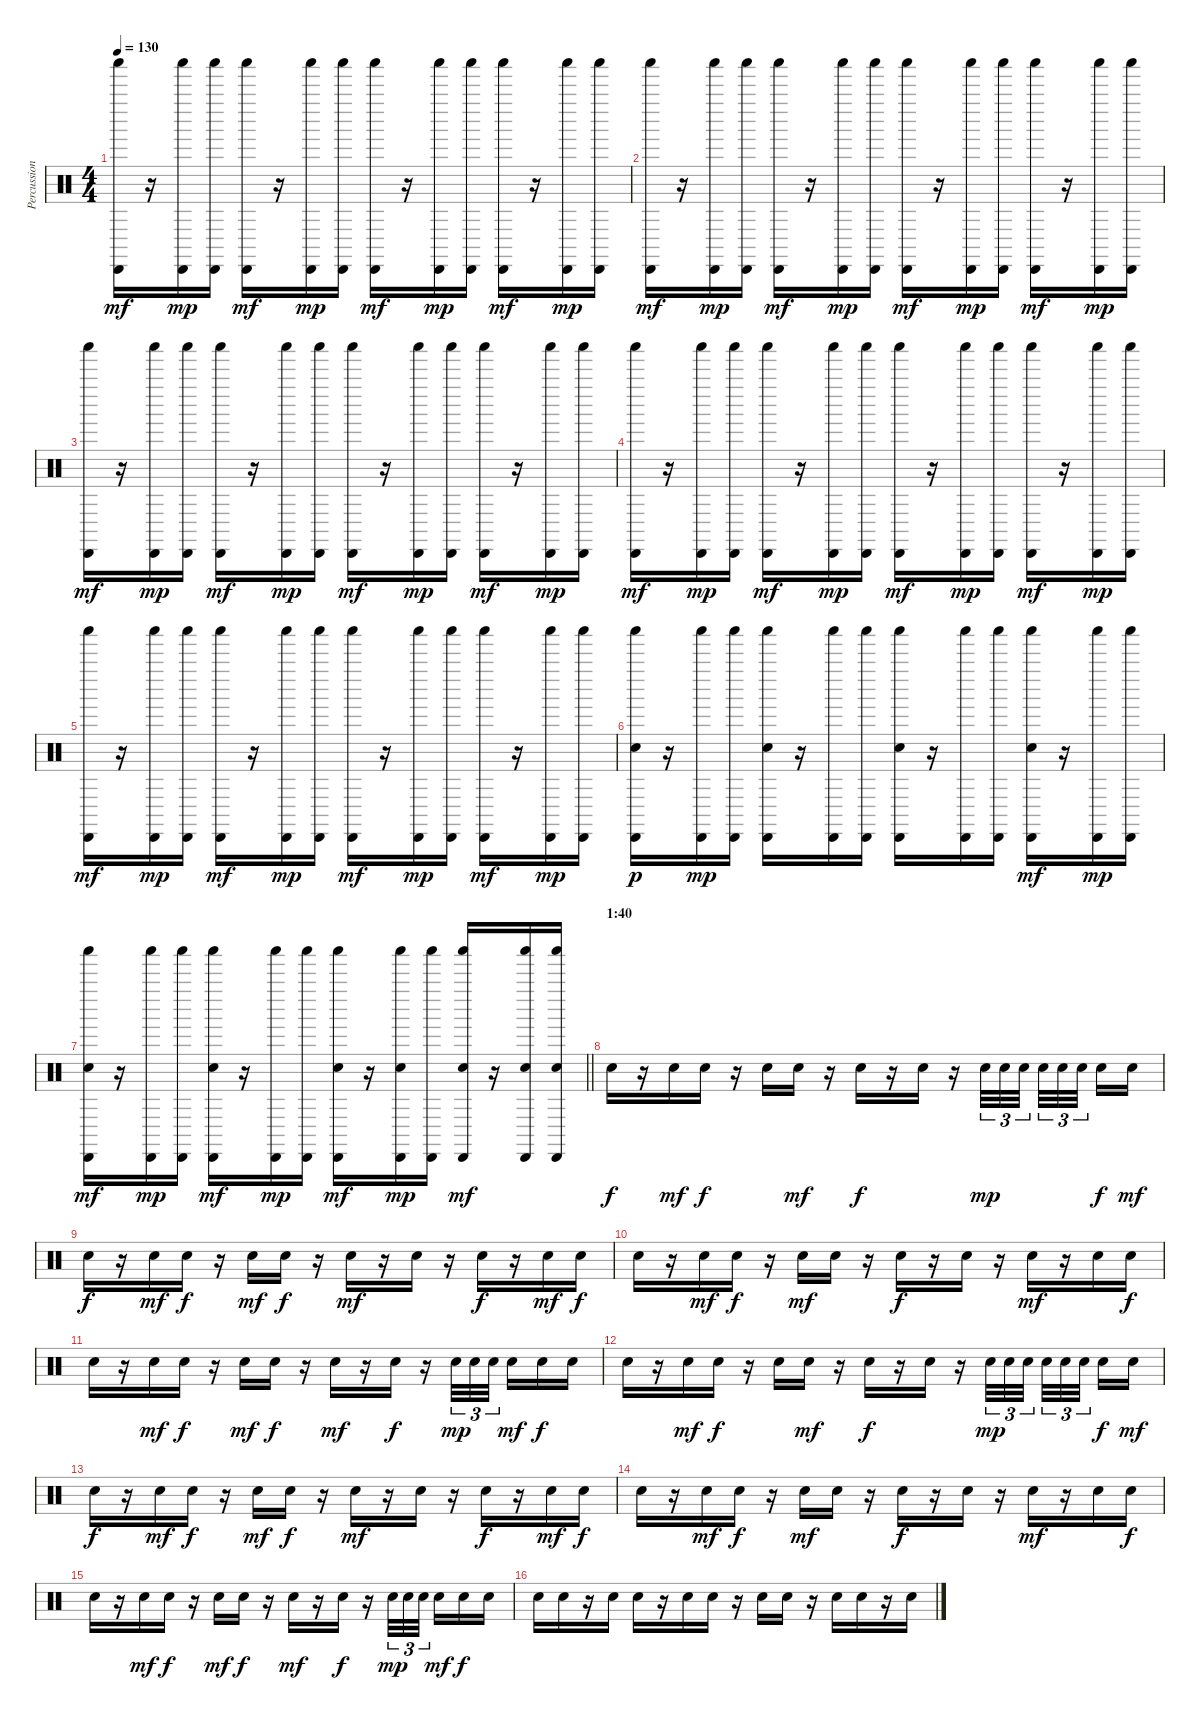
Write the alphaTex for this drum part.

\track ("Percussion" "Percussion") {instrument percussion}
\staff {score}
\articulation defaults
\ts (4 4)
\tempo 130
\clef neutral
\ks c
("Cabasa (hit)" "Shaker (hit)").16{dy mf} r.16 ("Cabasa (hit)" "Shaker (hit)").16{dy mp} ("Cabasa (hit)" "Shaker (hit)").16 ("Cabasa (hit)" "Shaker (hit)").16{dy mf} r.16 ("Cabasa (hit)" "Shaker (hit)").16{dy mp} ("Cabasa (hit)" "Shaker (hit)").16 ("Cabasa (hit)" "Shaker (hit)").16{dy mf} r.16 ("Cabasa (hit)" "Shaker (hit)").16{dy mp} ("Cabasa (hit)" "Shaker (hit)").16 ("Cabasa (hit)" "Shaker (hit)").16{dy mf} r.16 ("Cabasa (hit)" "Shaker (hit)").16{dy mp} ("Cabasa (hit)" "Shaker (hit)").16 |
("Cabasa (hit)" "Shaker (hit)").16{dy mf} r.16 ("Cabasa (hit)" "Shaker (hit)").16{dy mp} ("Cabasa (hit)" "Shaker (hit)").16 ("Cabasa (hit)" "Shaker (hit)").16{dy mf} r.16 ("Cabasa (hit)" "Shaker (hit)").16{dy mp} ("Cabasa (hit)" "Shaker (hit)").16 ("Cabasa (hit)" "Shaker (hit)").16{dy mf} r.16 ("Cabasa (hit)" "Shaker (hit)").16{dy mp} ("Cabasa (hit)" "Shaker (hit)").16 ("Cabasa (hit)" "Shaker (hit)").16{dy mf} r.16 ("Cabasa (hit)" "Shaker (hit)").16{dy mp} ("Cabasa (hit)" "Shaker (hit)").16 |
("Cabasa (hit)" "Shaker (hit)").16{dy mf} r.16 ("Cabasa (hit)" "Shaker (hit)").16{dy mp} ("Cabasa (hit)" "Shaker (hit)").16 ("Cabasa (hit)" "Shaker (hit)").16{dy mf} r.16 ("Cabasa (hit)" "Shaker (hit)").16{dy mp} ("Cabasa (hit)" "Shaker (hit)").16 ("Cabasa (hit)" "Shaker (hit)").16{dy mf} r.16 ("Cabasa (hit)" "Shaker (hit)").16{dy mp} ("Cabasa (hit)" "Shaker (hit)").16 ("Cabasa (hit)" "Shaker (hit)").16{dy mf} r.16 ("Cabasa (hit)" "Shaker (hit)").16{dy mp} ("Cabasa (hit)" "Shaker (hit)").16 |
("Cabasa (hit)" "Shaker (hit)").16{dy mf} r.16 ("Cabasa (hit)" "Shaker (hit)").16{dy mp} ("Cabasa (hit)" "Shaker (hit)").16 ("Cabasa (hit)" "Shaker (hit)").16{dy mf} r.16 ("Cabasa (hit)" "Shaker (hit)").16{dy mp} ("Cabasa (hit)" "Shaker (hit)").16 ("Cabasa (hit)" "Shaker (hit)").16{dy mf} r.16 ("Cabasa (hit)" "Shaker (hit)").16{dy mp} ("Cabasa (hit)" "Shaker (hit)").16 ("Cabasa (hit)" "Shaker (hit)").16{dy mf} r.16 ("Cabasa (hit)" "Shaker (hit)").16{dy mp} ("Cabasa (hit)" "Shaker (hit)").16 |
("Cabasa (hit)" "Shaker (hit)").16{dy mf} r.16 ("Cabasa (hit)" "Shaker (hit)").16{dy mp} ("Cabasa (hit)" "Shaker (hit)").16 ("Cabasa (hit)" "Shaker (hit)").16{dy mf} r.16 ("Cabasa (hit)" "Shaker (hit)").16{dy mp} ("Cabasa (hit)" "Shaker (hit)").16 ("Cabasa (hit)" "Shaker (hit)").16{dy mf} r.16 ("Cabasa (hit)" "Shaker (hit)").16{dy mp} ("Cabasa (hit)" "Shaker (hit)").16 ("Cabasa (hit)" "Shaker (hit)").16{dy mf} r.16 ("Cabasa (hit)" "Shaker (hit)").16{dy mp} ("Cabasa (hit)" "Shaker (hit)").16 |
("Cabasa (hit)" "Shaker (hit)" "Snare (hit) 2").16{dy p} r.16 ("Cabasa (hit)" "Shaker (hit)").16{dy mp} ("Cabasa (hit)" "Shaker (hit)").16 ("Cabasa (hit)" "Shaker (hit)" "Snare (hit) 2").16 r.16 ("Cabasa (hit)" "Shaker (hit)").16 ("Cabasa (hit)" "Shaker (hit)").16 ("Cabasa (hit)" "Shaker (hit)" "Snare (hit) 2").16 r.16 ("Cabasa (hit)" "Shaker (hit)").16 ("Cabasa (hit)" "Shaker (hit)").16 ("Cabasa (hit)" "Shaker (hit)" "Snare (hit) 2").16{dy mf} r.16 ("Cabasa (hit)" "Shaker (hit)").16{dy mp} ("Cabasa (hit)" "Shaker (hit)").16 |
\barLineRight lightlight
("Cabasa (hit)" "Shaker (hit)" "Snare (hit) 2").16{dy mf} r.16 ("Cabasa (hit)" "Shaker (hit)").16{dy mp} ("Cabasa (hit)" "Shaker (hit)").16 ("Cabasa (hit)" "Shaker (hit)" "Snare (hit) 2").16{dy mf} r.16 ("Cabasa (hit)" "Shaker (hit)").16{dy mp} ("Cabasa (hit)" "Shaker (hit)").16 ("Cabasa (hit)" "Shaker (hit)" "Snare (hit) 2").16{dy mf} r.16 ("Cabasa (hit)" "Shaker (hit)" "Snare (hit) 2").16{dy mp} ("Cabasa (hit)" "Shaker (hit)").16 ("Cabasa (hit)" "Shaker (hit)" "Snare (hit) 2").16{dy mf} r.16 ("Cabasa (hit)" "Shaker (hit)" "Snare (hit) 2").16 ("Cabasa (hit)" "Shaker (hit)" "Snare (hit) 2").16 |
\section ("" "1:40")
"Snare (hit) 2".16{dy f} r.16 "Snare (hit) 2".16{dy mf} "Snare (hit) 2".16{dy f} r.16 "Snare (hit) 2".16 "Snare (hit) 2".16{dy mf} r.16 "Snare (hit) 2".16{dy f} r.16 "Snare (hit) 2".16 r.16 "Snare (hit) 2".32{tu (3 2) dy mp} "Snare (hit) 2".32{tu (3 2)} "Snare (hit) 2".32{tu (3 2) beam splitsecondary} "Snare (hit) 2".32{tu (3 2)} "Snare (hit) 2".32{tu (3 2)} "Snare (hit) 2".32{tu (3 2) beam splitsecondary} "Snare (hit) 2".16{dy f} "Snare (hit) 2".16{dy mf} |
"Snare (hit) 2".16{dy f} r.16 "Snare (hit) 2".16{dy mf} "Snare (hit) 2".16{dy f} r.16 "Snare (hit) 2".16{dy mf} "Snare (hit) 2".16{dy f} r.16 "Snare (hit) 2".16{dy mf} r.16 "Snare (hit) 2".16 r.16 "Snare (hit) 2".16{dy f} r.16 "Snare (hit) 2".16{dy mf} "Snare (hit) 2".16{dy f} |
"Snare (hit) 2".16 r.16 "Snare (hit) 2".16{dy mf} "Snare (hit) 2".16{dy f} r.16 "Snare (hit) 2".16{dy mf} "Snare (hit) 2".16 r.16 "Snare (hit) 2".16{dy f} r.16 "Snare (hit) 2".16 r.16 "Snare (hit) 2".16{dy mf} r.16 "Snare (hit) 2".16 "Snare (hit) 2".16{dy f} |
"Snare (hit) 2".16 r.16 "Snare (hit) 2".16{dy mf} "Snare (hit) 2".16{dy f} r.16 "Snare (hit) 2".16{dy mf} "Snare (hit) 2".16{dy f} r.16 "Snare (hit) 2".16{dy mf} r.16 "Snare (hit) 2".16{dy f} r.16 "Snare (hit) 2".32{tu (3 2) dy mp} "Snare (hit) 2".32{tu (3 2)} "Snare (hit) 2".32{tu (3 2) beam splitsecondary} "Snare (hit) 2".16{dy mf} "Snare (hit) 2".16{dy f} "Snare (hit) 2".16 |
"Snare (hit) 2".16 r.16 "Snare (hit) 2".16{dy mf} "Snare (hit) 2".16{dy f} r.16 "Snare (hit) 2".16 "Snare (hit) 2".16{dy mf} r.16 "Snare (hit) 2".16{dy f} r.16 "Snare (hit) 2".16 r.16 "Snare (hit) 2".32{tu (3 2) dy mp} "Snare (hit) 2".32{tu (3 2)} "Snare (hit) 2".32{tu (3 2) beam splitsecondary} "Snare (hit) 2".32{tu (3 2)} "Snare (hit) 2".32{tu (3 2)} "Snare (hit) 2".32{tu (3 2) beam splitsecondary} "Snare (hit) 2".16{dy f} "Snare (hit) 2".16{dy mf} |
"Snare (hit) 2".16{dy f} r.16 "Snare (hit) 2".16{dy mf} "Snare (hit) 2".16{dy f} r.16 "Snare (hit) 2".16{dy mf} "Snare (hit) 2".16{dy f} r.16 "Snare (hit) 2".16{dy mf} r.16 "Snare (hit) 2".16 r.16 "Snare (hit) 2".16{dy f} r.16 "Snare (hit) 2".16{dy mf} "Snare (hit) 2".16{dy f} |
"Snare (hit) 2".16 r.16 "Snare (hit) 2".16{dy mf} "Snare (hit) 2".16{dy f} r.16 "Snare (hit) 2".16{dy mf} "Snare (hit) 2".16 r.16 "Snare (hit) 2".16{dy f} r.16 "Snare (hit) 2".16 r.16 "Snare (hit) 2".16{dy mf} r.16 "Snare (hit) 2".16 "Snare (hit) 2".16{dy f} |
"Snare (hit) 2".16 r.16 "Snare (hit) 2".16{dy mf} "Snare (hit) 2".16{dy f} r.16 "Snare (hit) 2".16{dy mf} "Snare (hit) 2".16{dy f} r.16 "Snare (hit) 2".16{dy mf} r.16 "Snare (hit) 2".16{dy f} r.16 "Snare (hit) 2".32{tu (3 2) dy mp} "Snare (hit) 2".32{tu (3 2)} "Snare (hit) 2".32{tu (3 2) beam splitsecondary} "Snare (hit) 2".16{dy mf} "Snare (hit) 2".16{dy f} "Snare (hit) 2".16 |
"Snare (hit) 2".16 "Snare (hit) 2".16 r.16 "Snare (hit) 2".16 "Snare (hit) 2".16 r.16 "Snare (hit) 2".16 "Snare (hit) 2".16 r.16 "Snare (hit) 2".16 "Snare (hit) 2".16 r.16 "Snare (hit) 2".16 "Snare (hit) 2".16 r.16 "Snare (hit) 2".16
